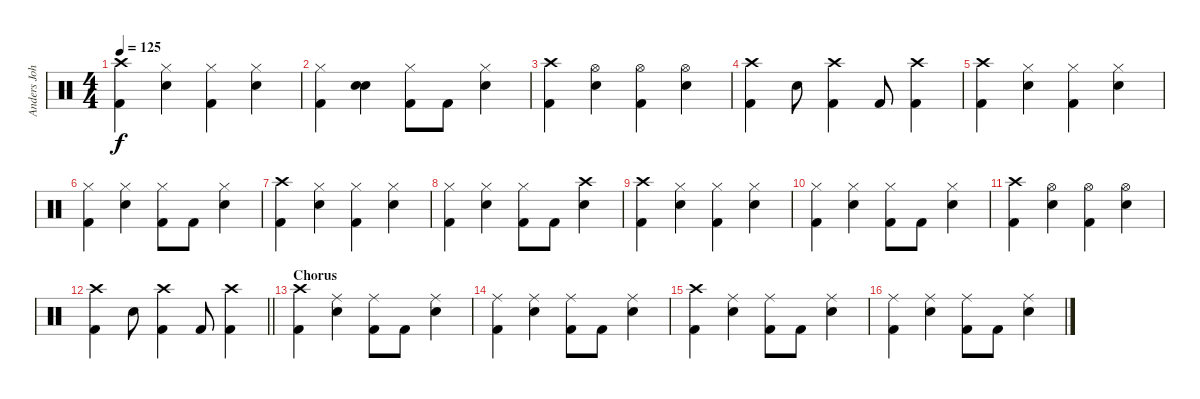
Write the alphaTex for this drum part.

\track ("Anders Johansson" "Anders Joh") {instrument percussion}
\staff {score}
\articulation defaults
\ts (4 4)
\tempo 125
\clef neutral
\ks c
("Kick (hit) 2" "Crash high (hit)").4{dy f} ("Electric Snare (hit)" "Hi-Hat (closed)").4 ("Kick (hit) 2" "Hi-Hat (closed)").4 ("Electric Snare (hit)" "Hi-Hat (closed)").4 |
("Kick (hit) 2" "Hi-Hat (closed)").4 ("Electric Snare (hit)" "Snare (hit)").4 ("Kick (hit) 2" "Hi-Hat (closed)").8 "Kick (hit) 2".8 ("Hi-Hat (closed)" "Electric Snare (hit)").4 |
("Kick (hit) 2" "Crash high (hit)").4 ("Electric Snare (hit)" "Hi-Hat (open)").4 ("Kick (hit) 2" "Hi-Hat (open)").4 ("Electric Snare (hit)" "Hi-Hat (open)").4 |
("Kick (hit) 2" "Crash high (hit)").4 "Electric Snare (hit)".8 ("Kick (hit) 2" "Crash high (hit)").4 "Kick (hit) 2".8 ("Kick (hit) 2" "Crash high (hit)").4 |
("Kick (hit) 2" "Crash high (hit)").4 ("Electric Snare (hit)" "Hi-Hat (closed)").4 ("Kick (hit) 2" "Hi-Hat (closed)").4 ("Electric Snare (hit)" "Hi-Hat (closed)").4 |
("Kick (hit) 2" "Hi-Hat (closed)").4 ("Electric Snare (hit)" "Hi-Hat (closed)").4 ("Kick (hit) 2" "Hi-Hat (closed)").8 "Kick (hit) 2".8 ("Hi-Hat (closed)" "Electric Snare (hit)").4 |
("Kick (hit) 2" "Crash high (hit)").4 ("Electric Snare (hit)" "Hi-Hat (closed)").4 ("Kick (hit) 2" "Hi-Hat (closed)").4 ("Electric Snare (hit)" "Hi-Hat (closed)").4 |
("Kick (hit) 2" "Hi-Hat (closed)").4 ("Electric Snare (hit)" "Hi-Hat (closed)").4 ("Kick (hit) 2" "Hi-Hat (closed)").8 "Kick (hit) 2".8 ("Crash high (hit)" "Electric Snare (hit)").4 |
("Kick (hit) 2" "Crash high (hit)").4 ("Electric Snare (hit)" "Hi-Hat (closed)").4 ("Kick (hit) 2" "Hi-Hat (closed)").4 ("Electric Snare (hit)" "Hi-Hat (closed)").4 |
("Kick (hit) 2" "Hi-Hat (closed)").4 ("Electric Snare (hit)" "Hi-Hat (closed)").4 ("Kick (hit) 2" "Hi-Hat (closed)").8 "Kick (hit) 2".8 ("Hi-Hat (closed)" "Electric Snare (hit)").4 |
("Kick (hit) 2" "Crash high (hit)").4 ("Electric Snare (hit)" "Hi-Hat (open)").4 ("Kick (hit) 2" "Hi-Hat (open)").4 ("Electric Snare (hit)" "Hi-Hat (open)").4 |
\barLineRight lightlight
("Kick (hit) 2" "Crash high (hit)").4 "Electric Snare (hit)".8 ("Kick (hit) 2" "Crash high (hit)").4 "Kick (hit) 2".8 ("Kick (hit) 2" "Crash high (hit)").4 |
\section ("" "Chorus")
("Kick (hit) 2" "Crash high (hit)").4 ("Electric Snare (hit)" "Ride (middle)").4 ("Kick (hit) 2" "Ride (middle)").8 "Kick (hit) 2".8 ("Electric Snare (hit)" "Ride (middle)").4 |
("Kick (hit) 2" "Ride (middle)").4 ("Electric Snare (hit)" "Ride (middle)").4 ("Kick (hit) 2" "Ride (middle)").8 "Kick (hit) 2".8 ("Ride (middle)" "Electric Snare (hit)").4 |
("Kick (hit) 2" "Crash high (hit)").4 ("Electric Snare (hit)" "Ride (middle)").4 ("Kick (hit) 2" "Ride (middle)").8 "Kick (hit) 2".8 ("Ride (middle)" "Electric Snare (hit)").4 |
("Kick (hit) 2" "Ride (middle)").4 ("Electric Snare (hit)" "Ride (middle)").4 ("Kick (hit) 2" "Ride (middle)").8 "Kick (hit) 2".8 ("Electric Snare (hit)" "Ride (middle)").4
